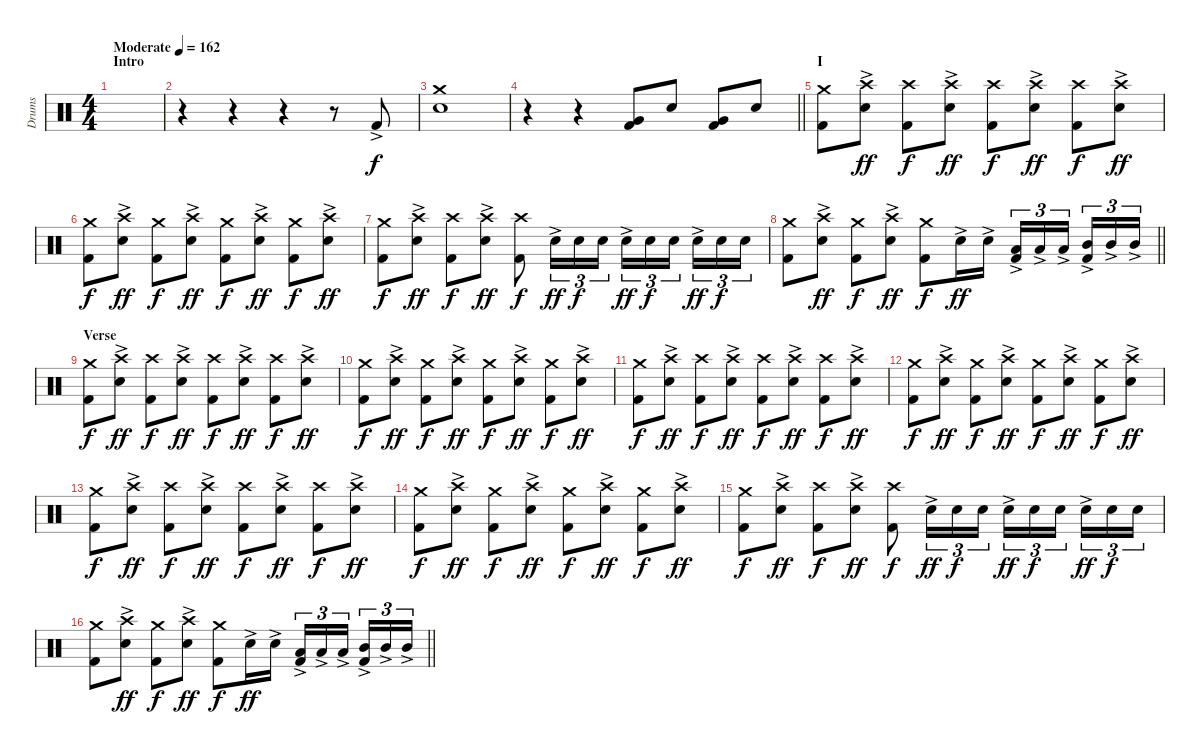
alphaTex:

\track ("Drums" "Drums") {instrument percussion}
\staff {score}
\articulation defaults
\ts (4 4)
\section ("" "Intro")
\tempo (162 "Moderate")
\clef neutral
\ks c
|
r.4 r.4 r.4 r.8 "Kick (hit) 2"{ac}.8 |
("Crash medium (hit)" "Electric Snare (hit)").1{dy f} |
\barLineRight lightlight
r.4 r.4 ("Very Low Tom (hit)" "Kick (hit) 2").8 "Electric Snare (hit)".8 ("Very Low Tom (hit)" "Kick (hit) 2").8 "Electric Snare (hit)".8 |
\section ("" "I")
("Crash medium (hit)" "Kick (hit) 2").8 ("Crash high (hit)" "Electric Snare (hit)"{ac}).8{dy ff} ("Crash high (hit)" "Kick (hit) 2").8{dy f} ("Crash high (hit)" "Electric Snare (hit)"{ac}).8{dy ff} ("Crash high (hit)" "Kick (hit) 2").8{dy f} ("Crash high (hit)" "Electric Snare (hit)"{ac}).8{dy ff} ("Crash high (hit)" "Kick (hit) 2").8{dy f} ("Crash high (hit)" "Electric Snare (hit)"{ac}).8{dy ff} |
("Crash medium (hit)" "Kick (hit) 2").8{dy f} ("Crash high (hit)" "Electric Snare (hit)"{ac}).8{dy ff} ("Crash medium (hit)" "Kick (hit) 2").8{dy f} ("Crash high (hit)" "Electric Snare (hit)"{ac}).8{dy ff} ("Crash medium (hit)" "Kick (hit) 2").8{dy f} ("Crash high (hit)" "Electric Snare (hit)"{ac}).8{dy ff} ("Crash medium (hit)" "Kick (hit) 2").8{dy f} ("Crash high (hit)" "Electric Snare (hit)"{ac}).8{dy ff} |
("Crash medium (hit)" "Kick (hit) 2").8{dy f} ("Crash high (hit)" "Electric Snare (hit)"{ac}).8{dy ff} ("Crash high (hit)" "Kick (hit) 2").8{dy f} ("Crash high (hit)" "Electric Snare (hit)"{ac}).8{dy ff} ("Crash high (hit)" "Kick (hit) 2").8{dy f} "Electric Snare (hit)"{ac}.16{tu (3 2) dy ff} "Electric Snare (hit)".16{tu (3 2) dy f} "Electric Snare (hit)".16{tu (3 2)} "Electric Snare (hit)"{ac}.16{tu (3 2) dy ff} "Electric Snare (hit)".16{tu (3 2) dy f} "Electric Snare (hit)".16{tu (3 2) beam splitsecondary} "Electric Snare (hit)"{ac}.16{tu (3 2) dy ff} "Electric Snare (hit)".16{tu (3 2) dy f} "Electric Snare (hit)".16{tu (3 2)} |
\barLineRight lightlight
("Crash medium (hit)" "Kick (hit) 2").8 ("Crash high (hit)" "Electric Snare (hit)"{ac}).8{dy ff} ("Crash medium (hit)" "Kick (hit) 2").8{dy f} ("Crash high (hit)" "Electric Snare (hit)"{ac}).8{dy ff} ("Crash medium (hit)" "Kick (hit) 2").8{dy f} "Electric Snare (hit)"{ac}.16{dy ff} "Electric Snare (hit)"{ac}.16 ("Low Tom (hit)"{ac} "Kick (hit) 2").16{tu (3 2)} "Low Tom (hit)"{ac}.16{tu (3 2)} "Low Tom (hit)"{ac}.16{tu (3 2) beam splitsecondary} ("Mid Tom (hit)"{ac} "Kick (hit) 2").16{tu (3 2)} "Mid Tom (hit)"{ac}.16{tu (3 2)} "Mid Tom (hit)"{ac}.16{tu (3 2)} |
\section ("" "Verse")
("Crash medium (hit)" "Kick (hit) 2").8{dy f} ("Crash high (hit)" "Electric Snare (hit)"{ac}).8{dy ff} ("Crash high (hit)" "Kick (hit) 2").8{dy f} ("Crash high (hit)" "Electric Snare (hit)"{ac}).8{dy ff} ("Crash high (hit)" "Kick (hit) 2").8{dy f} ("Crash high (hit)" "Electric Snare (hit)"{ac}).8{dy ff} ("Crash high (hit)" "Kick (hit) 2").8{dy f} ("Crash high (hit)" "Electric Snare (hit)"{ac}).8{dy ff} |
("Crash medium (hit)" "Kick (hit) 2").8{dy f} ("Crash high (hit)" "Electric Snare (hit)"{ac}).8{dy ff} ("Crash medium (hit)" "Kick (hit) 2").8{dy f} ("Crash high (hit)" "Electric Snare (hit)"{ac}).8{dy ff} ("Crash medium (hit)" "Kick (hit) 2").8{dy f} ("Crash high (hit)" "Electric Snare (hit)"{ac}).8{dy ff} ("Crash medium (hit)" "Kick (hit) 2").8{dy f} ("Crash high (hit)" "Electric Snare (hit)"{ac}).8{dy ff} |
("Crash medium (hit)" "Kick (hit) 2").8{dy f} ("Crash high (hit)" "Electric Snare (hit)"{ac}).8{dy ff} ("Crash high (hit)" "Kick (hit) 2").8{dy f} ("Crash high (hit)" "Electric Snare (hit)"{ac}).8{dy ff} ("Crash high (hit)" "Kick (hit) 2").8{dy f} ("Crash high (hit)" "Electric Snare (hit)"{ac}).8{dy ff} ("Crash high (hit)" "Kick (hit) 2").8{dy f} ("Crash high (hit)" "Electric Snare (hit)"{ac}).8{dy ff} |
("Crash medium (hit)" "Kick (hit) 2").8{dy f} ("Crash high (hit)" "Electric Snare (hit)"{ac}).8{dy ff} ("Crash medium (hit)" "Kick (hit) 2").8{dy f} ("Crash high (hit)" "Electric Snare (hit)"{ac}).8{dy ff} ("Crash medium (hit)" "Kick (hit) 2").8{dy f} ("Crash high (hit)" "Electric Snare (hit)"{ac}).8{dy ff} ("Crash medium (hit)" "Kick (hit) 2").8{dy f} ("Crash high (hit)" "Electric Snare (hit)"{ac}).8{dy ff} |
("Crash medium (hit)" "Kick (hit) 2").8{dy f} ("Crash high (hit)" "Electric Snare (hit)"{ac}).8{dy ff} ("Crash high (hit)" "Kick (hit) 2").8{dy f} ("Crash high (hit)" "Electric Snare (hit)"{ac}).8{dy ff} ("Crash high (hit)" "Kick (hit) 2").8{dy f} ("Crash high (hit)" "Electric Snare (hit)"{ac}).8{dy ff} ("Crash high (hit)" "Kick (hit) 2").8{dy f} ("Crash high (hit)" "Electric Snare (hit)"{ac}).8{dy ff} |
("Crash medium (hit)" "Kick (hit) 2").8{dy f} ("Crash high (hit)" "Electric Snare (hit)"{ac}).8{dy ff} ("Crash medium (hit)" "Kick (hit) 2").8{dy f} ("Crash high (hit)" "Electric Snare (hit)"{ac}).8{dy ff} ("Crash medium (hit)" "Kick (hit) 2").8{dy f} ("Crash high (hit)" "Electric Snare (hit)"{ac}).8{dy ff} ("Crash medium (hit)" "Kick (hit) 2").8{dy f} ("Crash high (hit)" "Electric Snare (hit)"{ac}).8{dy ff} |
("Crash medium (hit)" "Kick (hit) 2").8{dy f} ("Crash high (hit)" "Electric Snare (hit)"{ac}).8{dy ff} ("Crash high (hit)" "Kick (hit) 2").8{dy f} ("Crash high (hit)" "Electric Snare (hit)"{ac}).8{dy ff} ("Crash high (hit)" "Kick (hit) 2").8{dy f} "Electric Snare (hit)"{ac}.16{tu (3 2) dy ff} "Electric Snare (hit)".16{tu (3 2) dy f} "Electric Snare (hit)".16{tu (3 2)} "Electric Snare (hit)"{ac}.16{tu (3 2) dy ff} "Electric Snare (hit)".16{tu (3 2) dy f} "Electric Snare (hit)".16{tu (3 2) beam splitsecondary} "Electric Snare (hit)"{ac}.16{tu (3 2) dy ff} "Electric Snare (hit)".16{tu (3 2) dy f} "Electric Snare (hit)".16{tu (3 2)} |
\barLineRight lightlight
("Crash medium (hit)" "Kick (hit) 2").8 ("Crash high (hit)" "Electric Snare (hit)"{ac}).8{dy ff} ("Crash medium (hit)" "Kick (hit) 2").8{dy f} ("Crash high (hit)" "Electric Snare (hit)"{ac}).8{dy ff} ("Crash medium (hit)" "Kick (hit) 2").8{dy f} "Electric Snare (hit)"{ac}.16{dy ff} "Electric Snare (hit)"{ac}.16 ("Low Tom (hit)"{ac} "Kick (hit) 2").16{tu (3 2)} "Low Tom (hit)"{ac}.16{tu (3 2)} "Low Tom (hit)"{ac}.16{tu (3 2) beam splitsecondary} ("Mid Tom (hit)"{ac} "Kick (hit) 2").16{tu (3 2)} "Mid Tom (hit)"{ac}.16{tu (3 2)} "Mid Tom (hit)"{ac}.16{tu (3 2)}
